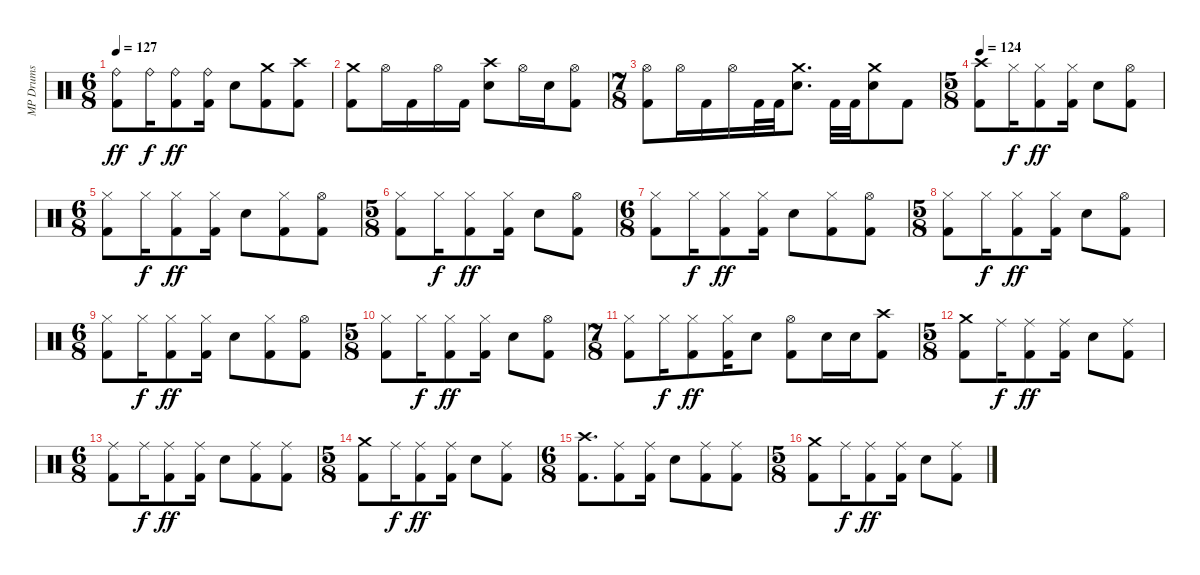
\track ("MP Drums" "MP Drums") {instrument percussion}
\staff {score}
\articulation defaults
\ts (6 8)
\tempo 127
\clef neutral
\ks c
("Ride (bell)" "Kick (hit) 2").8{dy ff} "Ride (bell)".16{dy f} ("Ride (bell)" "Kick (hit) 2").8{dy ff} ("Ride (bell)" "Kick (hit) 2").16 "Snare (hit) 2".8 ("Crash medium (hit)" "Kick (hit) 2").8 ("Crash high (hit)" "Kick (hit) 2").8 |
("Crash medium (hit)" "Kick (hit) 2").8 "Hi-Hat (open)".16 "Kick (hit) 2".16 "Hi-Hat (open)".16 "Kick (hit) 2".16 ("Crash high (hit)" "Snare (hit) 2").8 "Hi-Hat (open)".16 "Snare (hit) 2".16 ("Hi-Hat (open)" "Kick (hit) 2").8 |
\ts (7 8)
("Hi-Hat (open)" "Kick (hit) 2").8 "Hi-Hat (open)".16 "Kick (hit) 2".16 "Hi-Hat (open)".16 "Kick (hit) 2".32 "Kick (hit) 2".32 ("Crash medium (hit)" "Snare (hit) 2").8{d} "Kick (hit) 2".32 "Kick (hit) 2".32 ("Crash medium (hit)" "Snare (hit) 2").8 "Kick (hit) 2".8 |
\ts (5 8)
\tempo 124
("Crash high (hit)" "Kick (hit) 2").8 "Hi-Hat (closed)".16{dy f} ("Hi-Hat (closed)" "Kick (hit) 2").8{dy ff} ("Hi-Hat (closed)" "Kick (hit) 2").16 "Snare (hit) 2".8 ("Hi-Hat (open)" "Kick (hit) 2").8 |
\ts (6 8)
("Hi-Hat (closed)" "Kick (hit) 2").8 "Hi-Hat (closed)".16{dy f} ("Hi-Hat (closed)" "Kick (hit) 2").8{dy ff} ("Hi-Hat (closed)" "Kick (hit) 2").16 "Snare (hit) 2".8 ("Hi-Hat (closed)" "Kick (hit) 2").8 ("Hi-Hat (open)" "Kick (hit) 2").8 |
\ts (5 8)
("Hi-Hat (closed)" "Kick (hit) 2").8 "Hi-Hat (closed)".16{dy f} ("Hi-Hat (closed)" "Kick (hit) 2").8{dy ff} ("Hi-Hat (closed)" "Kick (hit) 2").16 "Snare (hit) 2".8 ("Hi-Hat (open)" "Kick (hit) 2").8 |
\ts (6 8)
("Hi-Hat (closed)" "Kick (hit) 2").8 "Hi-Hat (closed)".16{dy f} ("Hi-Hat (closed)" "Kick (hit) 2").8{dy ff} ("Hi-Hat (closed)" "Kick (hit) 2").16 "Snare (hit) 2".8 ("Hi-Hat (closed)" "Kick (hit) 2").8 ("Hi-Hat (open)" "Kick (hit) 2").8 |
\ts (5 8)
("Hi-Hat (closed)" "Kick (hit) 2").8 "Hi-Hat (closed)".16{dy f} ("Hi-Hat (closed)" "Kick (hit) 2").8{dy ff} ("Hi-Hat (closed)" "Kick (hit) 2").16 "Snare (hit) 2".8 ("Hi-Hat (open)" "Kick (hit) 2").8 |
\ts (6 8)
("Hi-Hat (closed)" "Kick (hit) 2").8 "Hi-Hat (closed)".16{dy f} ("Hi-Hat (closed)" "Kick (hit) 2").8{dy ff} ("Hi-Hat (closed)" "Kick (hit) 2").16 "Snare (hit) 2".8 ("Hi-Hat (closed)" "Kick (hit) 2").8 ("Hi-Hat (open)" "Kick (hit) 2").8 |
\ts (5 8)
("Hi-Hat (closed)" "Kick (hit) 2").8 "Hi-Hat (closed)".16{dy f} ("Hi-Hat (closed)" "Kick (hit) 2").8{dy ff} ("Hi-Hat (closed)" "Kick (hit) 2").16 "Snare (hit) 2".8 ("Hi-Hat (open)" "Kick (hit) 2").8 |
\ts (7 8)
("Hi-Hat (closed)" "Kick (hit) 2").8 "Hi-Hat (closed)".16{dy f} ("Hi-Hat (closed)" "Kick (hit) 2").8{dy ff} ("Hi-Hat (closed)" "Kick (hit) 2").16 "Snare (hit) 2".8 ("Hi-Hat (open)" "Kick (hit) 2").8 "Snare (hit) 2".16 "Snare (hit) 2".16 ("Crash high (hit)" "Kick (hit) 2").8 |
\ts (5 8)
("Crash medium (hit)" "Kick (hit) 2").8 "Ride (middle)".16{dy f} ("Ride (middle)" "Kick (hit) 2").8{dy ff} ("Ride (middle)" "Kick (hit) 2").16 "Snare (hit) 2".8 ("Ride (middle)" "Kick (hit) 2").8 |
\ts (6 8)
("Ride (middle)" "Kick (hit) 2").8 "Ride (middle)".16{dy f} ("Ride (middle)" "Kick (hit) 2").8{dy ff} ("Ride (middle)" "Kick (hit) 2").16 "Snare (hit) 2".8 ("Ride (middle)" "Kick (hit) 2").8 ("Ride (middle)" "Kick (hit) 2").8 |
\ts (5 8)
("Crash medium (hit)" "Kick (hit) 2").8 "Ride (middle)".16{dy f} ("Ride (middle)" "Kick (hit) 2").8{dy ff} ("Ride (middle)" "Kick (hit) 2").16 "Snare (hit) 2".8 ("Ride (middle)" "Kick (hit) 2").8 |
\ts (6 8)
("Crash high (hit)" "Kick (hit) 2").8{d} ("Ride (middle)" "Kick (hit) 2").8 ("Ride (middle)" "Kick (hit) 2").16 "Snare (hit) 2".8 ("Ride (middle)" "Kick (hit) 2").8 ("Ride (middle)" "Kick (hit) 2").8 |
\ts (5 8)
("Crash medium (hit)" "Kick (hit) 2").8 "Ride (middle)".16{dy f} ("Ride (middle)" "Kick (hit) 2").8{dy ff} ("Ride (middle)" "Kick (hit) 2").16 "Snare (hit) 2".8 ("Ride (middle)" "Kick (hit) 2").8
